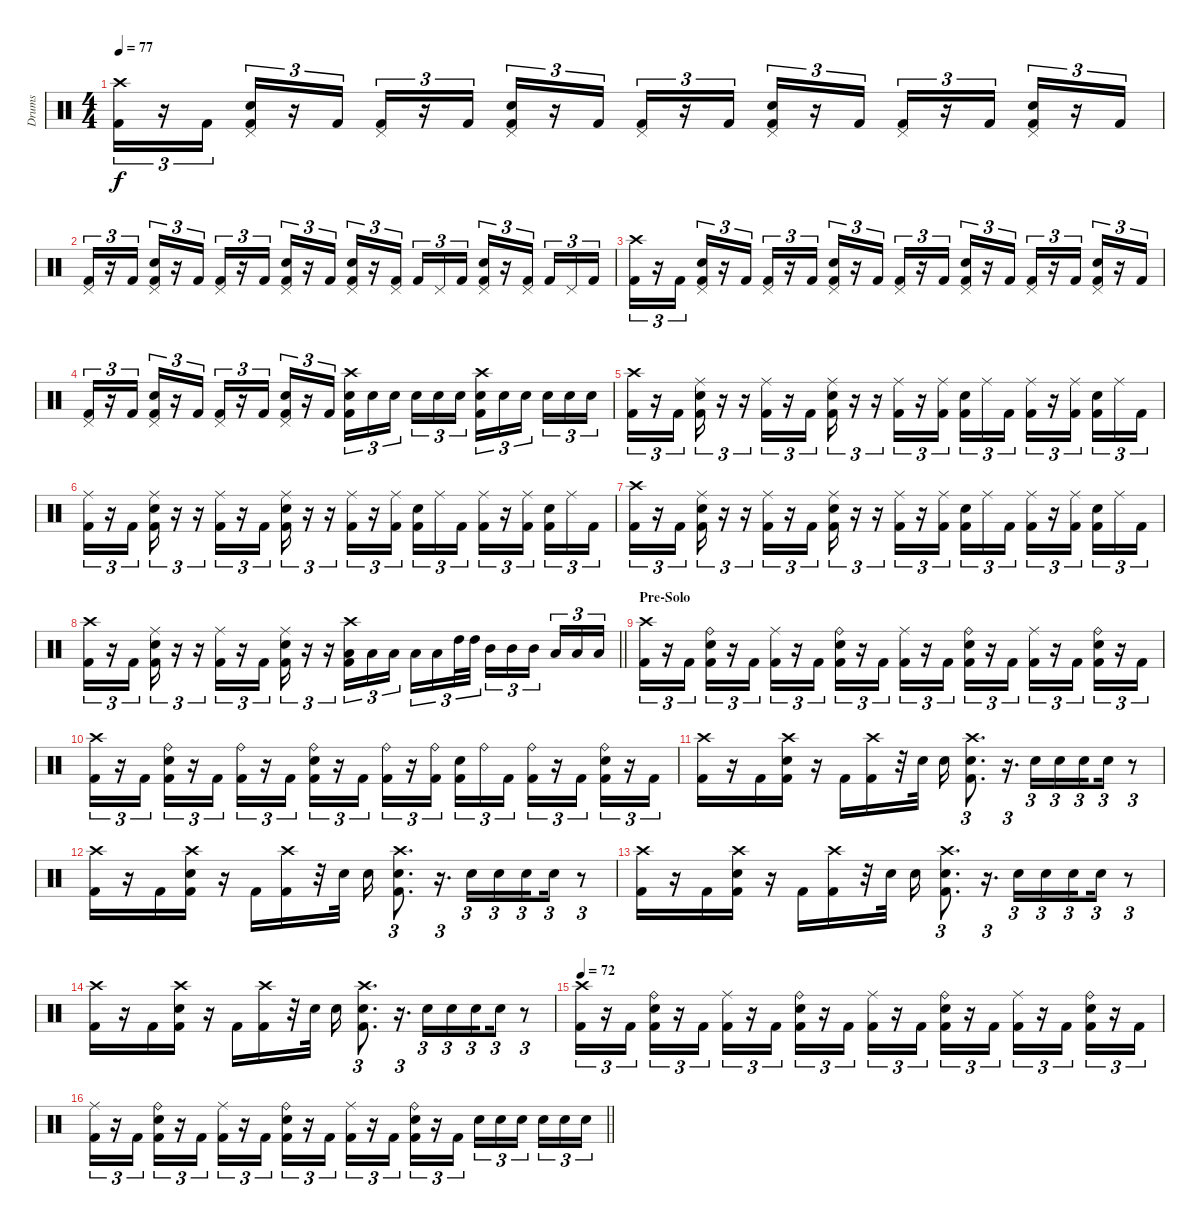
\track ("Drums" "Drums") {instrument percussion}
\staff {score}
\articulation defaults
\ts (4 4)
\tempo 77
\clef neutral
\ks c
("Crash high (hit)" "Kick (hit) 2").16{tu (3 2) dy f} r.16{tu (3 2)} "Kick (hit) 2".16{tu (3 2)} ("Pedal Hi-Hat (hit)" "Snare (hit) 2" "Kick (hit) 2").16{tu (3 2)} r.16{tu (3 2)} "Kick (hit) 2".16{tu (3 2)} ("Pedal Hi-Hat (hit)" "Kick (hit) 2").16{tu (3 2)} r.16{tu (3 2)} "Kick (hit) 2".16{tu (3 2)} ("Pedal Hi-Hat (hit)" "Snare (hit) 2" "Kick (hit) 2").16{tu (3 2)} r.16{tu (3 2)} "Kick (hit) 2".16{tu (3 2)} ("Pedal Hi-Hat (hit)" "Kick (hit) 2").16{tu (3 2)} r.16{tu (3 2)} "Kick (hit) 2".16{tu (3 2)} ("Pedal Hi-Hat (hit)" "Snare (hit) 2" "Kick (hit) 2").16{tu (3 2)} r.16{tu (3 2)} "Kick (hit) 2".16{tu (3 2)} ("Pedal Hi-Hat (hit)" "Kick (hit) 2").16{tu (3 2)} r.16{tu (3 2)} "Kick (hit) 2".16{tu (3 2)} ("Pedal Hi-Hat (hit)" "Snare (hit) 2" "Kick (hit) 2").16{tu (3 2)} r.16{tu (3 2)} "Kick (hit) 2".16{tu (3 2)} |
("Pedal Hi-Hat (hit)" "Kick (hit) 2").16{tu (3 2)} r.16{tu (3 2)} "Kick (hit) 2".16{tu (3 2)} ("Pedal Hi-Hat (hit)" "Snare (hit) 2" "Kick (hit) 2").16{tu (3 2)} r.16{tu (3 2)} "Kick (hit) 2".16{tu (3 2)} ("Pedal Hi-Hat (hit)" "Kick (hit) 2").16{tu (3 2)} r.16{tu (3 2)} "Kick (hit) 2".16{tu (3 2)} ("Pedal Hi-Hat (hit)" "Snare (hit) 2" "Kick (hit) 2").16{tu (3 2)} r.16{tu (3 2)} "Kick (hit) 2".16{tu (3 2)} ("Pedal Hi-Hat (hit)" "Snare (hit) 2" "Kick (hit) 2").16{tu (3 2)} r.16{tu (3 2)} ("Pedal Hi-Hat (hit)" "Kick (hit) 2").16{tu (3 2) beam splitsecondary} "Kick (hit) 2".16{tu (3 2)} "Pedal Hi-Hat (hit)".16{tu (3 2)} "Kick (hit) 2".16{tu (3 2)} ("Pedal Hi-Hat (hit)" "Snare (hit) 2" "Kick (hit) 2").16{tu (3 2)} r.16{tu (3 2)} ("Pedal Hi-Hat (hit)" "Kick (hit) 2").16{tu (3 2) beam splitsecondary} "Kick (hit) 2".16{tu (3 2)} "Pedal Hi-Hat (hit)".16{tu (3 2)} "Kick (hit) 2".16{tu (3 2)} |
("Crash high (hit)" "Kick (hit) 2").16{tu (3 2)} r.16{tu (3 2)} "Kick (hit) 2".16{tu (3 2)} ("Pedal Hi-Hat (hit)" "Snare (hit) 2" "Kick (hit) 2").16{tu (3 2)} r.16{tu (3 2)} "Kick (hit) 2".16{tu (3 2)} ("Pedal Hi-Hat (hit)" "Kick (hit) 2").16{tu (3 2)} r.16{tu (3 2)} "Kick (hit) 2".16{tu (3 2)} ("Pedal Hi-Hat (hit)" "Snare (hit) 2" "Kick (hit) 2").16{tu (3 2)} r.16{tu (3 2)} "Kick (hit) 2".16{tu (3 2)} ("Pedal Hi-Hat (hit)" "Kick (hit) 2").16{tu (3 2)} r.16{tu (3 2)} "Kick (hit) 2".16{tu (3 2)} ("Pedal Hi-Hat (hit)" "Snare (hit) 2" "Kick (hit) 2").16{tu (3 2)} r.16{tu (3 2)} "Kick (hit) 2".16{tu (3 2)} ("Pedal Hi-Hat (hit)" "Kick (hit) 2").16{tu (3 2)} r.16{tu (3 2)} "Kick (hit) 2".16{tu (3 2)} ("Pedal Hi-Hat (hit)" "Snare (hit) 2" "Kick (hit) 2").16{tu (3 2)} r.16{tu (3 2)} "Kick (hit) 2".16{tu (3 2)} |
("Pedal Hi-Hat (hit)" "Kick (hit) 2").16{tu (3 2)} r.16{tu (3 2)} "Kick (hit) 2".16{tu (3 2)} ("Pedal Hi-Hat (hit)" "Snare (hit) 2" "Kick (hit) 2").16{tu (3 2)} r.16{tu (3 2)} "Kick (hit) 2".16{tu (3 2)} ("Pedal Hi-Hat (hit)" "Kick (hit) 2").16{tu (3 2)} r.16{tu (3 2)} "Kick (hit) 2".16{tu (3 2)} ("Pedal Hi-Hat (hit)" "Snare (hit) 2" "Kick (hit) 2").16{tu (3 2)} r.16{tu (3 2)} "Kick (hit) 2".16{tu (3 2)} ("Crash high (hit)" "Snare (hit) 2" "Kick (hit) 2").16{tu (3 2)} "Snare (hit) 2".16{tu (3 2)} "Snare (hit) 2".16{tu (3 2) beam splitsecondary} "Snare (hit) 2".16{tu (3 2)} "Snare (hit) 2".16{tu (3 2)} "Snare (hit) 2".16{tu (3 2)} ("Crash high (hit)" "Snare (hit) 2" "Kick (hit) 2").16{tu (3 2)} "Snare (hit) 2".16{tu (3 2)} "Snare (hit) 2".16{tu (3 2) beam splitsecondary} "Snare (hit) 2".16{tu (3 2)} "Snare (hit) 2".16{tu (3 2)} "Snare (hit) 2".16{tu (3 2)} |
("Crash high (hit)" "Kick (hit) 2").16{tu (3 2)} r.16{tu (3 2)} "Kick (hit) 2".16{tu (3 2)} ("Ride (middle)" "Snare (hit) 2" "Kick (hit) 2").16{tu (3 2)} r.16{tu (3 2)} r.16{tu (3 2)} ("Ride (middle)" "Kick (hit) 2").16{tu (3 2)} r.16{tu (3 2)} "Kick (hit) 2".16{tu (3 2)} ("Ride (middle)" "Snare (hit) 2" "Kick (hit) 2").16{tu (3 2)} r.16{tu (3 2)} r.16{tu (3 2)} ("Ride (middle)" "Kick (hit) 2").16{tu (3 2)} r.16{tu (3 2)} ("Ride (middle)" "Kick (hit) 2").16{tu (3 2) beam splitsecondary} ("Snare (hit) 2" "Kick (hit) 2").16{tu (3 2)} "Ride (middle)".16{tu (3 2)} "Kick (hit) 2".16{tu (3 2)} ("Ride (middle)" "Kick (hit) 2").16{tu (3 2)} r.16{tu (3 2)} ("Ride (middle)" "Kick (hit) 2").16{tu (3 2) beam splitsecondary} ("Snare (hit) 2" "Kick (hit) 2").16{tu (3 2)} "Ride (middle)".16{tu (3 2)} "Kick (hit) 2".16{tu (3 2)} |
("Ride (middle)" "Kick (hit) 2").16{tu (3 2)} r.16{tu (3 2)} "Kick (hit) 2".16{tu (3 2)} ("Ride (middle)" "Snare (hit) 2" "Kick (hit) 2").16{tu (3 2)} r.16{tu (3 2)} r.16{tu (3 2)} ("Ride (middle)" "Kick (hit) 2").16{tu (3 2)} r.16{tu (3 2)} "Kick (hit) 2".16{tu (3 2)} ("Ride (middle)" "Snare (hit) 2" "Kick (hit) 2").16{tu (3 2)} r.16{tu (3 2)} r.16{tu (3 2)} ("Ride (middle)" "Kick (hit) 2").16{tu (3 2)} r.16{tu (3 2)} ("Ride (middle)" "Kick (hit) 2").16{tu (3 2) beam splitsecondary} ("Snare (hit) 2" "Kick (hit) 2").16{tu (3 2)} "Ride (middle)".16{tu (3 2)} "Kick (hit) 2".16{tu (3 2)} ("Ride (middle)" "Kick (hit) 2").16{tu (3 2)} r.16{tu (3 2)} ("Ride (middle)" "Kick (hit) 2").16{tu (3 2) beam splitsecondary} ("Snare (hit) 2" "Kick (hit) 2").16{tu (3 2)} "Ride (middle)".16{tu (3 2)} "Kick (hit) 2".16{tu (3 2)} |
("Crash high (hit)" "Kick (hit) 2").16{tu (3 2)} r.16{tu (3 2)} "Kick (hit) 2".16{tu (3 2)} ("Ride (middle)" "Snare (hit) 2" "Kick (hit) 2").16{tu (3 2)} r.16{tu (3 2)} r.16{tu (3 2)} ("Ride (middle)" "Kick (hit) 2").16{tu (3 2)} r.16{tu (3 2)} "Kick (hit) 2".16{tu (3 2)} ("Ride (middle)" "Snare (hit) 2" "Kick (hit) 2").16{tu (3 2)} r.16{tu (3 2)} r.16{tu (3 2)} ("Ride (middle)" "Kick (hit) 2").16{tu (3 2)} r.16{tu (3 2)} ("Ride (middle)" "Kick (hit) 2").16{tu (3 2) beam splitsecondary} ("Snare (hit) 2" "Kick (hit) 2").16{tu (3 2)} "Ride (middle)".16{tu (3 2)} "Kick (hit) 2".16{tu (3 2)} ("Ride (middle)" "Kick (hit) 2").16{tu (3 2)} r.16{tu (3 2)} ("Ride (middle)" "Kick (hit) 2").16{tu (3 2) beam splitsecondary} ("Snare (hit) 2" "Kick (hit) 2").16{tu (3 2)} "Ride (middle)".16{tu (3 2)} "Kick (hit) 2".16{tu (3 2)} |
\barLineRight lightlight
("Crash high (hit)" "Kick (hit) 2").16{tu (3 2)} r.16{tu (3 2)} "Kick (hit) 2".16{tu (3 2)} ("Ride (middle)" "Snare (hit) 2" "Kick (hit) 2").16{tu (3 2)} r.16{tu (3 2)} r.16{tu (3 2)} ("Ride (middle)" "Kick (hit) 2").16{tu (3 2)} r.16{tu (3 2)} "Kick (hit) 2".16{tu (3 2)} ("Ride (middle)" "Snare (hit) 2" "Kick (hit) 2").16{tu (3 2)} r.16{tu (3 2)} r.16{tu (3 2)} ("Crash high (hit)" "Low Tom (hit)" "Kick (hit) 2").16{tu (3 2)} "Low Tom (hit)".16{tu (3 2)} "Low Tom (hit)".16{tu (3 2) beam splitsecondary} "Low Tom (hit)".16{tu (3 2)} "Low Tom (hit)".16{tu (3 2)} "High Tom (hit)".32{tu (3 2)} "High Tom (hit)".32{tu (3 2)} "Mid Tom (hit)".16{tu (3 2)} "Mid Tom (hit)".16{tu (3 2)} "Mid Tom (hit)".16{tu (3 2) beam splitsecondary} "Low Tom (hit)".16{tu (3 2)} "Low Tom (hit)".16{tu (3 2)} "Low Tom (hit)".16{tu (3 2)} |
\section ("" "Pre-Solo")
("Crash high (hit)" "Kick (hit) 2").16{tu (3 2)} r.16{tu (3 2)} "Kick (hit) 2".16{tu (3 2)} ("Ride (bell)" "Snare (hit) 2" "Kick (hit) 2").16{tu (3 2)} r.16{tu (3 2)} "Kick (hit) 2".16{tu (3 2)} ("Ride (middle)" "Kick (hit) 2").16{tu (3 2)} r.16{tu (3 2)} "Kick (hit) 2".16{tu (3 2)} ("Ride (bell)" "Snare (hit) 2" "Kick (hit) 2").16{tu (3 2)} r.16{tu (3 2)} "Kick (hit) 2".16{tu (3 2)} ("Ride (middle)" "Kick (hit) 2").16{tu (3 2)} r.16{tu (3 2)} "Kick (hit) 2".16{tu (3 2)} ("Ride (bell)" "Snare (hit) 2" "Kick (hit) 2").16{tu (3 2)} r.16{tu (3 2)} "Kick (hit) 2".16{tu (3 2)} ("Ride (middle)" "Kick (hit) 2").16{tu (3 2)} r.16{tu (3 2)} "Kick (hit) 2".16{tu (3 2)} ("Ride (bell)" "Snare (hit) 2" "Kick (hit) 2").16{tu (3 2)} r.16{tu (3 2)} "Kick (hit) 2".16{tu (3 2)} |
("Crash high (hit)" "Kick (hit) 2").16{tu (3 2)} r.16{tu (3 2)} "Kick (hit) 2".16{tu (3 2)} ("Ride (bell)" "Snare (hit) 2" "Kick (hit) 2").16{tu (3 2)} r.16{tu (3 2)} "Kick (hit) 2".16{tu (3 2)} ("Ride (bell)" "Kick (hit) 2").16{tu (3 2)} r.16{tu (3 2)} "Kick (hit) 2".16{tu (3 2)} ("Ride (bell)" "Snare (hit) 2" "Kick (hit) 2").16{tu (3 2)} r.16{tu (3 2)} "Kick (hit) 2".16{tu (3 2)} ("Ride (bell)" "Kick (hit) 2").16{tu (3 2)} r.16{tu (3 2)} ("Ride (bell)" "Kick (hit) 2").16{tu (3 2) beam splitsecondary} ("Snare (hit) 2" "Kick (hit) 2").16{tu (3 2)} "Ride (bell)".16{tu (3 2)} "Kick (hit) 2".16{tu (3 2)} ("Ride (bell)" "Kick (hit) 2").16{tu (3 2)} r.16{tu (3 2)} "Kick (hit) 2".16{tu (3 2)} ("Ride (bell)" "Snare (hit) 2" "Kick (hit) 2").16{tu (3 2)} r.16{tu (3 2)} "Kick (hit) 2".16{tu (3 2)} |
("Crash high (hit)" "Kick (hit) 2").16 r.16 "Kick (hit) 2".16 ("Crash high (hit)" "Snare (hit) 2" "Kick (hit) 2").16 r.16 "Kick (hit) 2".16 ("Crash high (hit)" "Kick (hit) 2").16 r.32 "Snare (hit) 2".32 "Snare (hit) 2".16 ("Crash high (hit)" "Snare (hit) 2" "Kick (hit) 2").8{d tu (3 2)} r.16{d tu (3 2)} "Snare (hit) 2".16{tu (3 2)} "Snare (hit) 2".16{tu (3 2)} "Snare (hit) 2".16{tu (3 2) beam splitsecondary} "Snare (hit) 2".16{tu (3 2)} r.8{tu (3 2)} |
("Crash high (hit)" "Kick (hit) 2").16 r.16 "Kick (hit) 2".16 ("Crash high (hit)" "Snare (hit) 2" "Kick (hit) 2").16 r.16 "Kick (hit) 2".16 ("Crash high (hit)" "Kick (hit) 2").16 r.32 "Snare (hit) 2".32 "Snare (hit) 2".16 ("Crash high (hit)" "Snare (hit) 2" "Kick (hit) 2").8{d tu (3 2)} r.16{d tu (3 2)} "Snare (hit) 2".16{tu (3 2)} "Snare (hit) 2".16{tu (3 2)} "Snare (hit) 2".16{tu (3 2) beam splitsecondary} "Snare (hit) 2".16{tu (3 2)} r.8{tu (3 2)} |
("Crash high (hit)" "Kick (hit) 2").16 r.16 "Kick (hit) 2".16 ("Crash high (hit)" "Snare (hit) 2" "Kick (hit) 2").16 r.16 "Kick (hit) 2".16 ("Crash high (hit)" "Kick (hit) 2").16 r.32 "Snare (hit) 2".32 "Snare (hit) 2".16 ("Crash high (hit)" "Snare (hit) 2" "Kick (hit) 2").8{d tu (3 2)} r.16{d tu (3 2)} "Snare (hit) 2".16{tu (3 2)} "Snare (hit) 2".16{tu (3 2)} "Snare (hit) 2".16{tu (3 2) beam splitsecondary} "Snare (hit) 2".16{tu (3 2)} r.8{tu (3 2)} |
("Crash high (hit)" "Kick (hit) 2").16 r.16 "Kick (hit) 2".16 ("Crash high (hit)" "Snare (hit) 2" "Kick (hit) 2").16 r.16 "Kick (hit) 2".16 ("Crash high (hit)" "Kick (hit) 2").16 r.32 "Snare (hit) 2".32 "Snare (hit) 2".16 ("Crash high (hit)" "Snare (hit) 2" "Kick (hit) 2").8{d tu (3 2)} r.16{d tu (3 2)} "Snare (hit) 2".16{tu (3 2)} "Snare (hit) 2".16{tu (3 2)} "Snare (hit) 2".16{tu (3 2) beam splitsecondary} "Snare (hit) 2".16{tu (3 2)} r.8{tu (3 2)} |
\tempo 72
("Crash high (hit)" "Kick (hit) 2").16{tu (3 2)} r.16{tu (3 2)} "Kick (hit) 2".16{tu (3 2)} ("Ride (bell)" "Snare (hit) 2" "Kick (hit) 2").16{tu (3 2)} r.16{tu (3 2)} "Kick (hit) 2".16{tu (3 2)} ("Ride (middle)" "Kick (hit) 2").16{tu (3 2)} r.16{tu (3 2)} "Kick (hit) 2".16{tu (3 2)} ("Ride (bell)" "Snare (hit) 2" "Kick (hit) 2").16{tu (3 2)} r.16{tu (3 2)} "Kick (hit) 2".16{tu (3 2)} ("Ride (middle)" "Kick (hit) 2").16{tu (3 2)} r.16{tu (3 2)} "Kick (hit) 2".16{tu (3 2)} ("Ride (bell)" "Snare (hit) 2" "Kick (hit) 2").16{tu (3 2)} r.16{tu (3 2)} "Kick (hit) 2".16{tu (3 2)} ("Ride (middle)" "Kick (hit) 2").16{tu (3 2)} r.16{tu (3 2)} "Kick (hit) 2".16{tu (3 2)} ("Ride (bell)" "Snare (hit) 2" "Kick (hit) 2").16{tu (3 2)} r.16{tu (3 2)} "Kick (hit) 2".16{tu (3 2)} |
\barLineRight lightlight
("Ride (middle)" "Kick (hit) 2").16{tu (3 2)} r.16{tu (3 2)} "Kick (hit) 2".16{tu (3 2)} ("Ride (bell)" "Snare (hit) 2" "Kick (hit) 2").16{tu (3 2)} r.16{tu (3 2)} "Kick (hit) 2".16{tu (3 2)} ("Ride (middle)" "Kick (hit) 2").16{tu (3 2)} r.16{tu (3 2)} "Kick (hit) 2".16{tu (3 2)} ("Ride (bell)" "Snare (hit) 2" "Kick (hit) 2").16{tu (3 2)} r.16{tu (3 2)} "Kick (hit) 2".16{tu (3 2)} ("Ride (middle)" "Kick (hit) 2").16{tu (3 2)} r.16{tu (3 2)} "Kick (hit) 2".16{tu (3 2)} ("Ride (bell)" "Snare (hit) 2" "Kick (hit) 2").16{tu (3 2)} r.16{tu (3 2)} "Kick (hit) 2".16{tu (3 2)} "Snare (hit) 2".16{tu (3 2)} "Snare (hit) 2".16{tu (3 2)} "Snare (hit) 2".16{tu (3 2) beam splitsecondary} "Snare (hit) 2".16{tu (3 2)} "Snare (hit) 2".16{tu (3 2)} "Snare (hit) 2".16{tu (3 2)}
